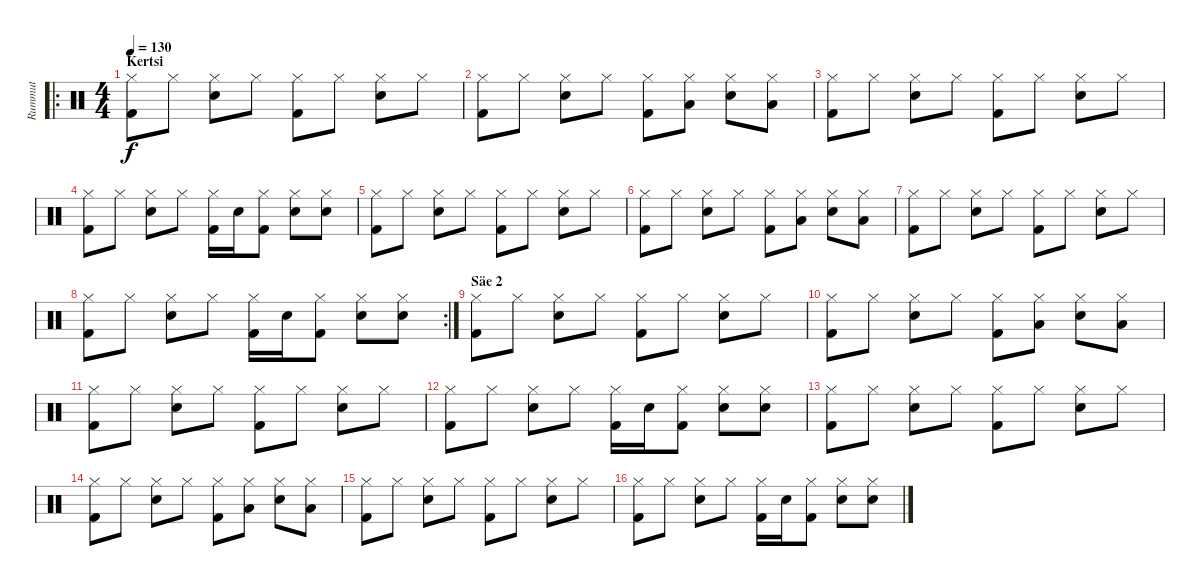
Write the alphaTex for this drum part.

\track ("Rummut" "Rummut") {instrument percussion}
\staff {score}
\articulation defaults
\ro
\ts (4 4)
\section ("" "Kertsi")
\tempo 130
\clef neutral
\ks c
("Hi-Hat (closed)" "Kick (hit) 2").8{dy f} "Hi-Hat (closed)".8 ("Hi-Hat (closed)" "Snare (hit) 2").8 "Hi-Hat (closed)".8 ("Hi-Hat (closed)" "Kick (hit) 2").8 "Hi-Hat (closed)".8 ("Hi-Hat (closed)" "Snare (hit) 2").8 "Hi-Hat (closed)".8 |
("Hi-Hat (closed)" "Kick (hit) 2").8 "Hi-Hat (closed)".8 ("Hi-Hat (closed)" "Snare (hit) 2").8 "Hi-Hat (closed)".8 ("Hi-Hat (closed)" "Kick (hit) 2").8 ("Hi-Hat (closed)" "Low Tom (hit)").8 ("Hi-Hat (closed)" "Snare (hit) 2").8 ("Hi-Hat (closed)" "Low Floor Tom (hit)").8 |
("Hi-Hat (closed)" "Kick (hit) 2").8 "Hi-Hat (closed)".8 ("Hi-Hat (closed)" "Snare (hit) 2").8 "Hi-Hat (closed)".8 ("Hi-Hat (closed)" "Kick (hit) 2").8 "Hi-Hat (closed)".8 ("Hi-Hat (closed)" "Snare (hit) 2").8 "Hi-Hat (closed)".8 |
("Hi-Hat (closed)" "Kick (hit) 2").8 "Hi-Hat (closed)".8 ("Hi-Hat (closed)" "Snare (hit) 2").8 "Hi-Hat (closed)".8 ("Hi-Hat (closed)" "Kick (hit) 2").16 "Snare (hit) 2".16 ("Hi-Hat (closed)" "Kick (hit) 2").8 ("Hi-Hat (closed)" "Snare (hit) 2").8 ("Hi-Hat (closed)" "Snare (hit) 2").8 |
("Hi-Hat (closed)" "Kick (hit) 2").8 "Hi-Hat (closed)".8 ("Hi-Hat (closed)" "Snare (hit) 2").8 "Hi-Hat (closed)".8 ("Hi-Hat (closed)" "Kick (hit) 2").8 "Hi-Hat (closed)".8 ("Hi-Hat (closed)" "Snare (hit) 2").8 "Hi-Hat (closed)".8 |
("Hi-Hat (closed)" "Kick (hit) 2").8 "Hi-Hat (closed)".8 ("Hi-Hat (closed)" "Snare (hit) 2").8 "Hi-Hat (closed)".8 ("Hi-Hat (closed)" "Kick (hit) 2").8 ("Hi-Hat (closed)" "Low Tom (hit)").8 ("Hi-Hat (closed)" "Snare (hit) 2").8 ("Hi-Hat (closed)" "Low Tom (hit)").8 |
("Hi-Hat (closed)" "Kick (hit) 2").8 "Hi-Hat (closed)".8 ("Hi-Hat (closed)" "Snare (hit) 2").8 "Hi-Hat (closed)".8 ("Hi-Hat (closed)" "Kick (hit) 2").8 "Hi-Hat (closed)".8 ("Hi-Hat (closed)" "Snare (hit) 2").8 "Hi-Hat (closed)".8 |
\rc 2
("Hi-Hat (closed)" "Kick (hit) 2").8 "Hi-Hat (closed)".8 ("Hi-Hat (closed)" "Snare (hit) 2").8 "Hi-Hat (closed)".8 ("Hi-Hat (closed)" "Kick (hit) 2").16 "Snare (hit) 2".16 ("Hi-Hat (closed)" "Kick (hit) 2").8 ("Hi-Hat (closed)" "Snare (hit) 2").8 ("Hi-Hat (closed)" "Snare (hit) 2").8 |
\section ("" "Säe 2")
("Hi-Hat (closed)" "Kick (hit) 2").8 "Hi-Hat (closed)".8 ("Hi-Hat (closed)" "Snare (hit) 2").8 "Hi-Hat (closed)".8 ("Hi-Hat (closed)" "Kick (hit) 2").8 "Hi-Hat (closed)".8 ("Hi-Hat (closed)" "Snare (hit) 2").8 "Hi-Hat (closed)".8 |
("Hi-Hat (closed)" "Kick (hit) 2").8 "Hi-Hat (closed)".8 ("Hi-Hat (closed)" "Snare (hit) 2").8 "Hi-Hat (closed)".8 ("Hi-Hat (closed)" "Kick (hit) 2").8 ("Hi-Hat (closed)" "Low Tom (hit)").8 ("Hi-Hat (closed)" "Snare (hit) 2").8 ("Hi-Hat (closed)" "Low Tom (hit)").8 |
("Hi-Hat (closed)" "Kick (hit) 2").8 "Hi-Hat (closed)".8 ("Hi-Hat (closed)" "Snare (hit) 2").8 "Hi-Hat (closed)".8 ("Hi-Hat (closed)" "Kick (hit) 2").8 "Hi-Hat (closed)".8 ("Hi-Hat (closed)" "Snare (hit) 2").8 "Hi-Hat (closed)".8 |
("Hi-Hat (closed)" "Kick (hit) 2").8 "Hi-Hat (closed)".8 ("Hi-Hat (closed)" "Snare (hit) 2").8 "Hi-Hat (closed)".8 ("Hi-Hat (closed)" "Kick (hit) 2").16 "Snare (hit) 2".16 ("Hi-Hat (closed)" "Kick (hit) 2").8 ("Hi-Hat (closed)" "Snare (hit) 2").8 ("Hi-Hat (closed)" "Snare (hit) 2").8 |
("Hi-Hat (closed)" "Kick (hit) 2").8 "Hi-Hat (closed)".8 ("Hi-Hat (closed)" "Snare (hit) 2").8 "Hi-Hat (closed)".8 ("Hi-Hat (closed)" "Kick (hit) 2").8 "Hi-Hat (closed)".8 ("Hi-Hat (closed)" "Snare (hit) 2").8 "Hi-Hat (closed)".8 |
("Hi-Hat (closed)" "Kick (hit) 2").8 "Hi-Hat (closed)".8 ("Hi-Hat (closed)" "Snare (hit) 2").8 "Hi-Hat (closed)".8 ("Hi-Hat (closed)" "Kick (hit) 2").8 ("Hi-Hat (closed)" "Low Tom (hit)").8 ("Hi-Hat (closed)" "Snare (hit) 2").8 ("Hi-Hat (closed)" "Low Tom (hit)").8 |
("Hi-Hat (closed)" "Kick (hit) 2").8 "Hi-Hat (closed)".8 ("Hi-Hat (closed)" "Snare (hit) 2").8 "Hi-Hat (closed)".8 ("Hi-Hat (closed)" "Kick (hit) 2").8 "Hi-Hat (closed)".8 ("Hi-Hat (closed)" "Snare (hit) 2").8 "Hi-Hat (closed)".8 |
("Hi-Hat (closed)" "Kick (hit) 2").8 "Hi-Hat (closed)".8 ("Hi-Hat (closed)" "Snare (hit) 2").8 "Hi-Hat (closed)".8 ("Hi-Hat (closed)" "Kick (hit) 2").16 "Snare (hit) 2".16 ("Hi-Hat (closed)" "Kick (hit) 2").8 ("Hi-Hat (closed)" "Snare (hit) 2").8 ("Hi-Hat (closed)" "Snare (hit) 2").8
